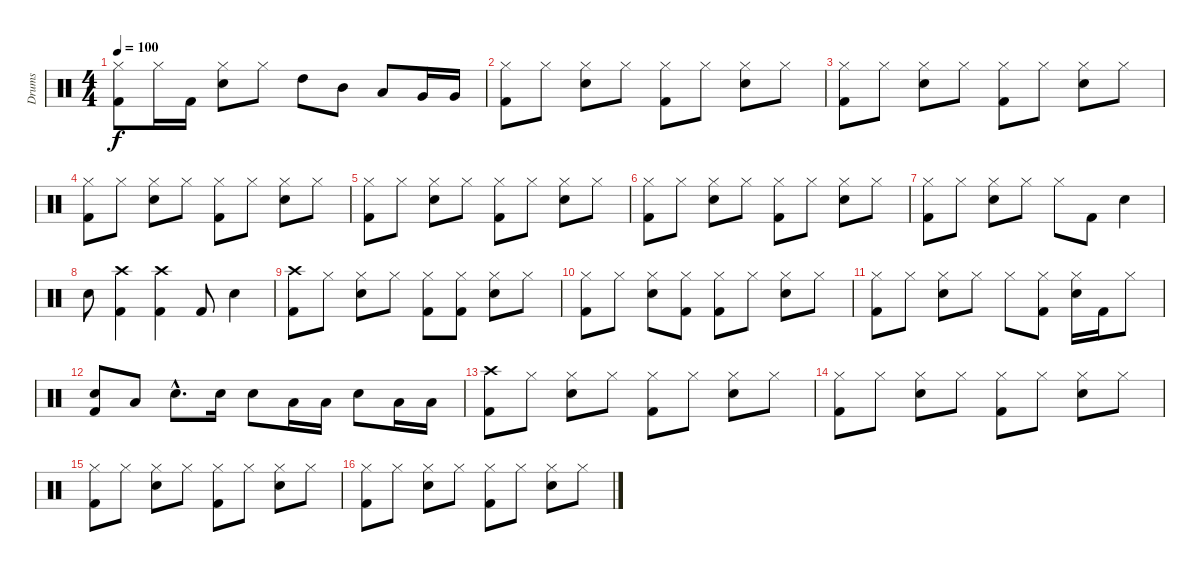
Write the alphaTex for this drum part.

\track ("Drums" "Drums") {instrument percussion}
\staff {score}
\articulation defaults
\ts (4 4)
\tempo 100
\clef neutral
\ks c
("Hi-Hat (closed)" "Kick (hit) 2").8{dy f} "Hi-Hat (closed)".16 "Kick (hit) 2".16 ("Hi-Hat (closed)" "Electric Snare (hit)").8 "Hi-Hat (closed)".8 "High Tom (hit)".8 "Mid Tom (hit)".8 "Low Tom (hit)".8 "Very Low Tom (hit)".16 "Very Low Tom (hit)".16 |
("Hi-Hat (closed)" "Kick (hit) 2").8 "Hi-Hat (closed)".8 ("Hi-Hat (closed)" "Electric Snare (hit)").8 "Hi-Hat (closed)".8 ("Hi-Hat (closed)" "Kick (hit) 2").8 "Hi-Hat (closed)".8 ("Hi-Hat (closed)" "Electric Snare (hit)").8 "Hi-Hat (closed)".8 |
("Hi-Hat (closed)" "Kick (hit) 2").8 "Hi-Hat (closed)".8 ("Hi-Hat (closed)" "Electric Snare (hit)").8 "Hi-Hat (closed)".8 ("Hi-Hat (closed)" "Kick (hit) 2").8 "Hi-Hat (closed)".8 ("Hi-Hat (closed)" "Electric Snare (hit)").8 "Hi-Hat (closed)".8 |
("Hi-Hat (closed)" "Kick (hit) 2").8 "Hi-Hat (closed)".8 ("Hi-Hat (closed)" "Electric Snare (hit)").8 "Hi-Hat (closed)".8 ("Hi-Hat (closed)" "Kick (hit) 2").8 "Hi-Hat (closed)".8 ("Hi-Hat (closed)" "Electric Snare (hit)").8 "Hi-Hat (closed)".8 |
("Hi-Hat (closed)" "Kick (hit) 2").8 "Hi-Hat (closed)".8 ("Hi-Hat (closed)" "Electric Snare (hit)").8 "Hi-Hat (closed)".8 ("Hi-Hat (closed)" "Kick (hit) 2").8 "Hi-Hat (closed)".8 ("Hi-Hat (closed)" "Electric Snare (hit)").8 "Hi-Hat (closed)".8 |
("Hi-Hat (closed)" "Kick (hit) 2").8 "Hi-Hat (closed)".8 ("Hi-Hat (closed)" "Electric Snare (hit)").8 "Hi-Hat (closed)".8 ("Hi-Hat (closed)" "Kick (hit) 2").8 "Hi-Hat (closed)".8 ("Hi-Hat (closed)" "Electric Snare (hit)").8 "Hi-Hat (closed)".8 |
("Hi-Hat (closed)" "Kick (hit) 2").8 "Hi-Hat (closed)".8 ("Hi-Hat (closed)" "Electric Snare (hit)").8 "Hi-Hat (closed)".8 "Hi-Hat (closed)".8 "Kick (hit) 2".8 "Electric Snare (hit)".4 |
"Electric Snare (hit)".8 ("Crash high (hit)" "Kick (hit) 2").4 ("Crash high (hit)" "Kick (hit) 2").4 "Kick (hit) 2".8 "Electric Snare (hit)".4 |
("Crash high (hit)" "Kick (hit) 2").8 "Hi-Hat (closed)".8 ("Hi-Hat (closed)" "Electric Snare (hit)").8 "Hi-Hat (closed)".8 ("Hi-Hat (closed)" "Kick (hit) 2").8 ("Hi-Hat (closed)" "Kick (hit) 2").8 ("Hi-Hat (closed)" "Electric Snare (hit)").8 "Hi-Hat (closed)".8 |
("Hi-Hat (closed)" "Kick (hit) 2").8 "Hi-Hat (closed)".8 ("Hi-Hat (closed)" "Electric Snare (hit)").8 ("Hi-Hat (closed)" "Kick (hit) 2").8 ("Hi-Hat (closed)" "Kick (hit) 2").8 "Hi-Hat (closed)".8 ("Hi-Hat (closed)" "Electric Snare (hit)").8 "Hi-Hat (closed)".8 |
("Hi-Hat (closed)" "Kick (hit) 2").8 "Hi-Hat (closed)".8 ("Hi-Hat (closed)" "Electric Snare (hit)").8 "Hi-Hat (closed)".8 "Hi-Hat (closed)".8 ("Hi-Hat (closed)" "Kick (hit) 2").8 ("Hi-Hat (closed)" "Electric Snare (hit)").16 "Kick (hit) 2".16 "Hi-Hat (closed)".8 |
("Electric Snare (hit)" "Kick (hit) 2").8 "Low Tom (hit)".8 "Electric Snare (hit)"{hac}.8{d} "Electric Snare (hit)".16 "Electric Snare (hit)".8 "Low Tom (hit)".16 "Low Tom (hit)".16 "Electric Snare (hit)".8 "Low Tom (hit)".16 "Low Tom (hit)".16 |
("Crash high (hit)" "Kick (hit) 2").8 "Hi-Hat (closed)".8 ("Hi-Hat (closed)" "Electric Snare (hit)").8 "Hi-Hat (closed)".8 ("Hi-Hat (closed)" "Kick (hit) 2").8 "Hi-Hat (closed)".8 ("Hi-Hat (closed)" "Electric Snare (hit)").8 "Hi-Hat (closed)".8 |
("Hi-Hat (closed)" "Kick (hit) 2").8 "Hi-Hat (closed)".8 ("Hi-Hat (closed)" "Electric Snare (hit)").8 "Hi-Hat (closed)".8 ("Hi-Hat (closed)" "Kick (hit) 2").8 "Hi-Hat (closed)".8 ("Hi-Hat (closed)" "Electric Snare (hit)").8 "Hi-Hat (closed)".8 |
("Hi-Hat (closed)" "Kick (hit) 2").8 "Hi-Hat (closed)".8 ("Hi-Hat (closed)" "Electric Snare (hit)").8 "Hi-Hat (closed)".8 ("Hi-Hat (closed)" "Kick (hit) 2").8 "Hi-Hat (closed)".8 ("Hi-Hat (closed)" "Electric Snare (hit)").8 "Hi-Hat (closed)".8 |
("Hi-Hat (closed)" "Kick (hit) 2").8 "Hi-Hat (closed)".8 ("Hi-Hat (closed)" "Electric Snare (hit)").8 "Hi-Hat (closed)".8 ("Hi-Hat (closed)" "Kick (hit) 2").8 "Hi-Hat (closed)".8 ("Hi-Hat (closed)" "Electric Snare (hit)").8 "Hi-Hat (closed)".8
